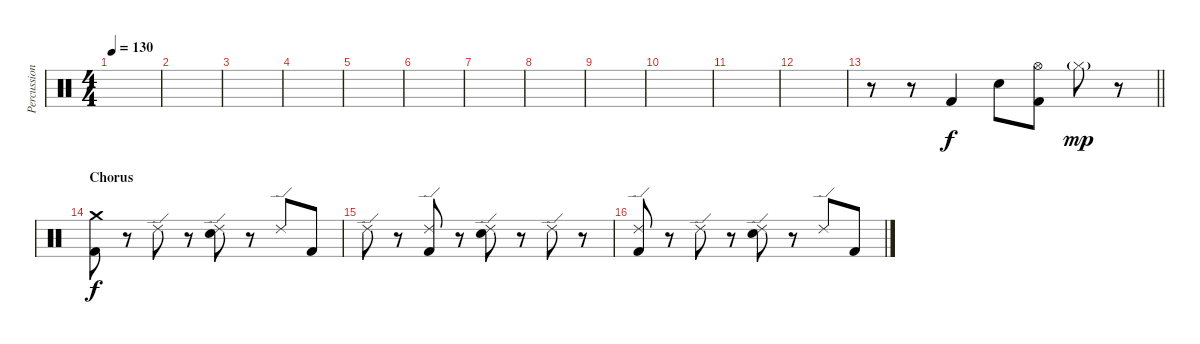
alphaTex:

\track ("Percussion" "Percussion") {instrument percussion}
\staff {score}
\articulation defaults
\ts (4 4)
\tempo 130
\clef neutral
\ks c
|
|
|
|
|
|
|
|
|
|
|
|
\barLineRight lightlight
r.8 r.8 "Kick (hit) 2".4 "Electric Snare (hit)".8 ("Hi-Hat (open)" "Kick (hit) 2").8 "Hi-Hat (closed)"{g}.8{dy mp} r.8 |
\section ("" "Chorus")
("Crash medium (hit)" "Kick (hit) 2").8{dy f} r.8 "Ride (edge) 2".8 r.8 ("Ride (edge) 2" "Electric Snare (hit)").8 r.8 "Ride (edge) 2".8 "Kick (hit) 2".8 |
"Ride (edge) 2".8 r.8 ("Ride (edge) 2" "Kick (hit) 2").8 r.8 ("Ride (edge) 2" "Electric Snare (hit)").8 r.8 "Ride (edge) 2".8 r.8 |
("Ride (edge) 2" "Kick (hit) 2").8 r.8 "Ride (edge) 2".8 r.8 ("Ride (edge) 2" "Electric Snare (hit)").8 r.8 "Ride (edge) 2".8 "Kick (hit) 2".8
